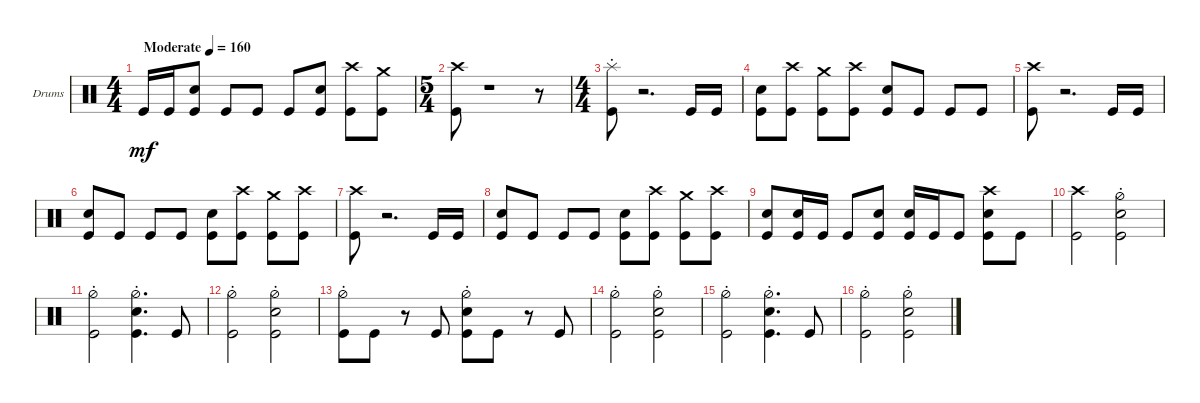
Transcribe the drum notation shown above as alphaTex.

\bracketExtendMode groupsimilarinstruments
\firstSystemTrackNameOrientation horizontal
\otherSystemsTrackNameOrientation horizontal
\track ("Drums" "Drums") {instrument percussion}
\staff {score}
\articulation defaults
\ts (4 4)
\beaming (8 2 2 2 2)
\tempo (160 "Moderate")
\clef neutral
\scale
0.333333
\ks c "Kick (hit)".16{dy mf} "Kick (hit)".16
("Kick (hit)" "Snare (hit) 2").8 "Kick (hit)".8 "Kick (hit)".8 "Kick (hit)".8 ("Kick (hit)" "Snare (hit) 2").8 ("Kick (hit)" "Crash high (hit)").8 ("Kick (hit)" "Crash medium (hit)").8 |
\ts (5 4)
\beaming (8 4 2 2 2)
\scale
0.333333 ("Kick (hit)" "Crash high (hit)").8 r.1 r.8 |
\ts (4 4)
\beaming (8 2 2 2 2)
\scale
0.333333 ("Kick (hit)" "Splash (hit)"{st}).8 r.2{d} "Kick (hit)".16 "Kick (hit)".16 |
\scale
0.333333 ("Kick (hit)" "Snare (hit) 2").8 ("Kick (hit)" "Crash high (hit)").8 ("Kick (hit)" "Crash medium (hit)").8 ("Kick (hit)" "Crash high (hit)").8 ("Kick (hit)" "Snare (hit) 2").8 "Kick (hit)".8 "Kick (hit)".8 "Kick (hit)".8 |
\scale
0.333333 ("Kick (hit)" "Crash high (hit)").8 r.2{d} "Kick (hit)".16 "Kick (hit)".16 |
\scale
0.333333 ("Kick (hit)" "Snare (hit) 2").8 "Kick (hit)".8 "Kick (hit)".8 "Kick (hit)".8 ("Kick (hit)" "Snare (hit) 2").8 ("Kick (hit)" "Crash high (hit)").8 ("Kick (hit)" "Crash medium (hit)").8 ("Kick (hit)" "Crash high (hit)").8 |
\scale
0.333333 ("Kick (hit)" "Crash high (hit)").8 r.2{d} "Kick (hit)".16 "Kick (hit)".16 |
\scale
0.333333 ("Kick (hit)" "Snare (hit) 2").8 "Kick (hit)".8 "Kick (hit)".8 "Kick (hit)".8 ("Kick (hit)" "Snare (hit) 2").8 ("Kick (hit)" "Crash high (hit)").8 ("Kick (hit)" "Crash medium (hit)").8 ("Kick (hit)" "Crash high (hit)").8 |
\scale
0.333333 ("Snare (hit) 2" "Kick (hit)").8 ("Snare (hit) 2" "Kick (hit)").16 "Kick (hit)".16 "Kick (hit)".8 ("Kick (hit)" "Snare (hit) 2").8 ("Kick (hit)" "Snare (hit) 2").16 "Kick (hit)".16 "Kick (hit)".8 ("Kick (hit)" "Snare (hit) 2" "Crash high (hit)").8 "Kick (hit)".8 |
\scale
0.333333 ("Kick (hit)" "Crash high (hit)").2 ("Kick (hit)" "Snare (hit) 2" "Hi-Hat (half)"{st}).2 |
\scale
0.333333 ("Hi-Hat (half)"{st} "Kick (hit)").2 ("Snare (hit) 2" "Hi-Hat (half)"{st} "Kick (hit)").4{d} "Kick (hit)".8 |
\scale
0.333333 ("Kick (hit)" "Hi-Hat (half)"{st}).2 ("Snare (hit) 2" "Kick (hit)" "Hi-Hat (half)"{st}).2 |
\scale
0.333333 ("Kick (hit)" "Hi-Hat (half)"{st}).8 "Kick (hit)".8 r.8 "Kick (hit)".8 ("Snare (hit) 2" "Kick (hit)" "Hi-Hat (half)"{st}).8 "Kick (hit)".8 r.8 "Kick (hit)".8 |
\scale
0.333333 ("Kick (hit)" "Hi-Hat (half)"{st}).2 ("Kick (hit)" "Snare (hit) 2" "Hi-Hat (half)"{st}).2 |
\scale
0.333333 ("Hi-Hat (half)"{st} "Kick (hit)").2 ("Snare (hit) 2" "Hi-Hat (half)"{st} "Kick (hit)").4{d} "Kick (hit)".8 |
\scale
0.333333 ("Kick (hit)" "Hi-Hat (half)"{st}).2 ("Snare (hit) 2" "Kick (hit)" "Hi-Hat (half)"{st}).2
